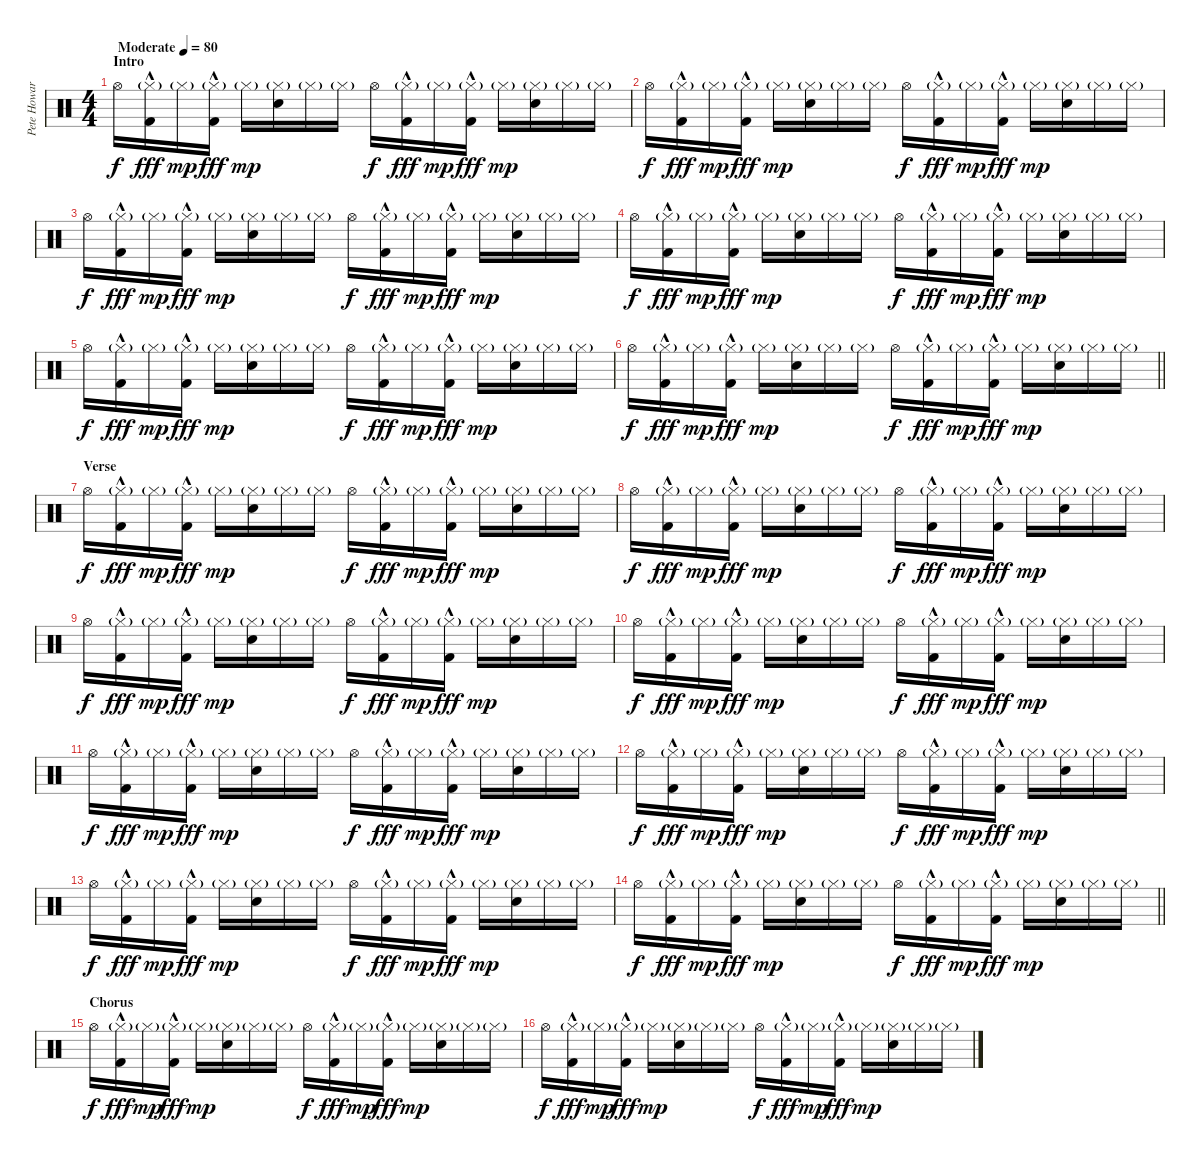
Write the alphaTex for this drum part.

\track ("Pete Howard - Drums" "Pete Howar") {instrument percussion}
\staff {score}
\articulation defaults
\ts (4 4)
\section ("" "Intro")
\tempo (80 "Moderate")
\clef neutral
\ks c "Hi-Hat (open)".16{dy f}
("Hi-Hat (closed)"{g} "Kick (hit) 2"{hac}).16{dy fff} "Hi-Hat (closed)"{g}.16{dy mp} ("Hi-Hat (closed)"{g} "Kick (hit) 2"{hac}).16{dy fff} "Hi-Hat (closed)"{g}.16{dy mp} ("Hi-Hat (closed)"{g} "Electric Snare (hit)").16 "Hi-Hat (closed)"{g}.16 "Hi-Hat (closed)"{g}.16 "Hi-Hat (open)".16{dy f} ("Hi-Hat (closed)"{g} "Kick (hit) 2"{hac}).16{dy fff} "Hi-Hat (closed)"{g}.16{dy mp} ("Hi-Hat (closed)"{g} "Kick (hit) 2"{hac}).16{dy fff} "Hi-Hat (closed)"{g}.16{dy mp} ("Hi-Hat (closed)"{g} "Electric Snare (hit)").16 "Hi-Hat (closed)"{g}.16 "Hi-Hat (closed)"{g}.16 |
"Hi-Hat (open)".16{dy f} ("Hi-Hat (closed)"{g} "Kick (hit) 2"{hac}).16{dy fff} "Hi-Hat (closed)"{g}.16{dy mp} ("Hi-Hat (closed)"{g} "Kick (hit) 2"{hac}).16{dy fff} "Hi-Hat (closed)"{g}.16{dy mp} ("Hi-Hat (closed)"{g} "Electric Snare (hit)").16 "Hi-Hat (closed)"{g}.16 "Hi-Hat (closed)"{g}.16 "Hi-Hat (open)".16{dy f} ("Hi-Hat (closed)"{g} "Kick (hit) 2"{hac}).16{dy fff} "Hi-Hat (closed)"{g}.16{dy mp} ("Hi-Hat (closed)"{g} "Kick (hit) 2"{hac}).16{dy fff} "Hi-Hat (closed)"{g}.16{dy mp} ("Hi-Hat (closed)"{g} "Electric Snare (hit)").16 "Hi-Hat (closed)"{g}.16 "Hi-Hat (closed)"{g}.16 |
"Hi-Hat (open)".16{dy f} ("Hi-Hat (closed)"{g} "Kick (hit) 2"{hac}).16{dy fff} "Hi-Hat (closed)"{g}.16{dy mp} ("Hi-Hat (closed)"{g} "Kick (hit) 2"{hac}).16{dy fff} "Hi-Hat (closed)"{g}.16{dy mp} ("Hi-Hat (closed)"{g} "Electric Snare (hit)").16 "Hi-Hat (closed)"{g}.16 "Hi-Hat (closed)"{g}.16 "Hi-Hat (open)".16{dy f} ("Hi-Hat (closed)"{g} "Kick (hit) 2"{hac}).16{dy fff} "Hi-Hat (closed)"{g}.16{dy mp} ("Hi-Hat (closed)"{g} "Kick (hit) 2"{hac}).16{dy fff} "Hi-Hat (closed)"{g}.16{dy mp} ("Hi-Hat (closed)"{g} "Electric Snare (hit)").16 "Hi-Hat (closed)"{g}.16 "Hi-Hat (closed)"{g}.16 |
"Hi-Hat (open)".16{dy f} ("Hi-Hat (closed)"{g} "Kick (hit) 2"{hac}).16{dy fff} "Hi-Hat (closed)"{g}.16{dy mp} ("Hi-Hat (closed)"{g} "Kick (hit) 2"{hac}).16{dy fff} "Hi-Hat (closed)"{g}.16{dy mp} ("Hi-Hat (closed)"{g} "Electric Snare (hit)").16 "Hi-Hat (closed)"{g}.16 "Hi-Hat (closed)"{g}.16 "Hi-Hat (open)".16{dy f} ("Hi-Hat (closed)"{g} "Kick (hit) 2"{hac}).16{dy fff} "Hi-Hat (closed)"{g}.16{dy mp} ("Hi-Hat (closed)"{g} "Kick (hit) 2"{hac}).16{dy fff} "Hi-Hat (closed)"{g}.16{dy mp} ("Hi-Hat (closed)"{g} "Electric Snare (hit)").16 "Hi-Hat (closed)"{g}.16 "Hi-Hat (closed)"{g}.16 |
"Hi-Hat (open)".16{dy f} ("Hi-Hat (closed)"{g} "Kick (hit) 2"{hac}).16{dy fff} "Hi-Hat (closed)"{g}.16{dy mp} ("Hi-Hat (closed)"{g} "Kick (hit) 2"{hac}).16{dy fff} "Hi-Hat (closed)"{g}.16{dy mp} ("Hi-Hat (closed)"{g} "Electric Snare (hit)").16 "Hi-Hat (closed)"{g}.16 "Hi-Hat (closed)"{g}.16 "Hi-Hat (open)".16{dy f} ("Hi-Hat (closed)"{g} "Kick (hit) 2"{hac}).16{dy fff} "Hi-Hat (closed)"{g}.16{dy mp} ("Hi-Hat (closed)"{g} "Kick (hit) 2"{hac}).16{dy fff} "Hi-Hat (closed)"{g}.16{dy mp} ("Hi-Hat (closed)"{g} "Electric Snare (hit)").16 "Hi-Hat (closed)"{g}.16 "Hi-Hat (closed)"{g}.16 |
\barLineRight lightlight "Hi-Hat (open)".16{dy f}
("Hi-Hat (closed)"{g} "Kick (hit) 2"{hac}).16{dy fff} "Hi-Hat (closed)"{g}.16{dy mp} ("Hi-Hat (closed)"{g} "Kick (hit) 2"{hac}).16{dy fff} "Hi-Hat (closed)"{g}.16{dy mp} ("Hi-Hat (closed)"{g} "Electric Snare (hit)").16 "Hi-Hat (closed)"{g}.16 "Hi-Hat (closed)"{g}.16 "Hi-Hat (open)".16{dy f} ("Hi-Hat (closed)"{g} "Kick (hit) 2"{hac}).16{dy fff} "Hi-Hat (closed)"{g}.16{dy mp} ("Hi-Hat (closed)"{g} "Kick (hit) 2"{hac}).16{dy fff} "Hi-Hat (closed)"{g}.16{dy mp} ("Hi-Hat (closed)"{g} "Electric Snare (hit)").16 "Hi-Hat (closed)"{g}.16 "Hi-Hat (closed)"{g}.16 |
\section ("" "Verse")
"Hi-Hat (open)".16{dy f} ("Hi-Hat (closed)"{g} "Kick (hit) 2"{hac}).16{dy fff} "Hi-Hat (closed)"{g}.16{dy mp} ("Hi-Hat (closed)"{g} "Kick (hit) 2"{hac}).16{dy fff} "Hi-Hat (closed)"{g}.16{dy mp} ("Hi-Hat (closed)"{g} "Electric Snare (hit)").16 "Hi-Hat (closed)"{g}.16 "Hi-Hat (closed)"{g}.16 "Hi-Hat (open)".16{dy f} ("Hi-Hat (closed)"{g} "Kick (hit) 2"{hac}).16{dy fff} "Hi-Hat (closed)"{g}.16{dy mp} ("Hi-Hat (closed)"{g} "Kick (hit) 2"{hac}).16{dy fff} "Hi-Hat (closed)"{g}.16{dy mp} ("Hi-Hat (closed)"{g} "Electric Snare (hit)").16 "Hi-Hat (closed)"{g}.16 "Hi-Hat (closed)"{g}.16 |
"Hi-Hat (open)".16{dy f} ("Hi-Hat (closed)"{g} "Kick (hit) 2"{hac}).16{dy fff} "Hi-Hat (closed)"{g}.16{dy mp} ("Hi-Hat (closed)"{g} "Kick (hit) 2"{hac}).16{dy fff} "Hi-Hat (closed)"{g}.16{dy mp} ("Hi-Hat (closed)"{g} "Electric Snare (hit)").16 "Hi-Hat (closed)"{g}.16 "Hi-Hat (closed)"{g}.16 "Hi-Hat (open)".16{dy f} ("Hi-Hat (closed)"{g} "Kick (hit) 2"{hac}).16{dy fff} "Hi-Hat (closed)"{g}.16{dy mp} ("Hi-Hat (closed)"{g} "Kick (hit) 2"{hac}).16{dy fff} "Hi-Hat (closed)"{g}.16{dy mp} ("Hi-Hat (closed)"{g} "Electric Snare (hit)").16 "Hi-Hat (closed)"{g}.16 "Hi-Hat (closed)"{g}.16 |
"Hi-Hat (open)".16{dy f} ("Hi-Hat (closed)"{g} "Kick (hit) 2"{hac}).16{dy fff} "Hi-Hat (closed)"{g}.16{dy mp} ("Hi-Hat (closed)"{g} "Kick (hit) 2"{hac}).16{dy fff} "Hi-Hat (closed)"{g}.16{dy mp} ("Hi-Hat (closed)"{g} "Electric Snare (hit)").16 "Hi-Hat (closed)"{g}.16 "Hi-Hat (closed)"{g}.16 "Hi-Hat (open)".16{dy f} ("Hi-Hat (closed)"{g} "Kick (hit) 2"{hac}).16{dy fff} "Hi-Hat (closed)"{g}.16{dy mp} ("Hi-Hat (closed)"{g} "Kick (hit) 2"{hac}).16{dy fff} "Hi-Hat (closed)"{g}.16{dy mp} ("Hi-Hat (closed)"{g} "Electric Snare (hit)").16 "Hi-Hat (closed)"{g}.16 "Hi-Hat (closed)"{g}.16 |
"Hi-Hat (open)".16{dy f} ("Hi-Hat (closed)"{g} "Kick (hit) 2"{hac}).16{dy fff} "Hi-Hat (closed)"{g}.16{dy mp} ("Hi-Hat (closed)"{g} "Kick (hit) 2"{hac}).16{dy fff} "Hi-Hat (closed)"{g}.16{dy mp} ("Hi-Hat (closed)"{g} "Electric Snare (hit)").16 "Hi-Hat (closed)"{g}.16 "Hi-Hat (closed)"{g}.16 "Hi-Hat (open)".16{dy f} ("Hi-Hat (closed)"{g} "Kick (hit) 2"{hac}).16{dy fff} "Hi-Hat (closed)"{g}.16{dy mp} ("Hi-Hat (closed)"{g} "Kick (hit) 2"{hac}).16{dy fff} "Hi-Hat (closed)"{g}.16{dy mp} ("Hi-Hat (closed)"{g} "Electric Snare (hit)").16 "Hi-Hat (closed)"{g}.16 "Hi-Hat (closed)"{g}.16 |
"Hi-Hat (open)".16{dy f} ("Hi-Hat (closed)"{g} "Kick (hit) 2"{hac}).16{dy fff} "Hi-Hat (closed)"{g}.16{dy mp} ("Hi-Hat (closed)"{g} "Kick (hit) 2"{hac}).16{dy fff} "Hi-Hat (closed)"{g}.16{dy mp} ("Hi-Hat (closed)"{g} "Electric Snare (hit)").16 "Hi-Hat (closed)"{g}.16 "Hi-Hat (closed)"{g}.16 "Hi-Hat (open)".16{dy f} ("Hi-Hat (closed)"{g} "Kick (hit) 2"{hac}).16{dy fff} "Hi-Hat (closed)"{g}.16{dy mp} ("Hi-Hat (closed)"{g} "Kick (hit) 2"{hac}).16{dy fff} "Hi-Hat (closed)"{g}.16{dy mp} ("Hi-Hat (closed)"{g} "Electric Snare (hit)").16 "Hi-Hat (closed)"{g}.16 "Hi-Hat (closed)"{g}.16 |
"Hi-Hat (open)".16{dy f} ("Hi-Hat (closed)"{g} "Kick (hit) 2"{hac}).16{dy fff} "Hi-Hat (closed)"{g}.16{dy mp} ("Hi-Hat (closed)"{g} "Kick (hit) 2"{hac}).16{dy fff} "Hi-Hat (closed)"{g}.16{dy mp} ("Hi-Hat (closed)"{g} "Electric Snare (hit)").16 "Hi-Hat (closed)"{g}.16 "Hi-Hat (closed)"{g}.16 "Hi-Hat (open)".16{dy f} ("Hi-Hat (closed)"{g} "Kick (hit) 2"{hac}).16{dy fff} "Hi-Hat (closed)"{g}.16{dy mp} ("Hi-Hat (closed)"{g} "Kick (hit) 2"{hac}).16{dy fff} "Hi-Hat (closed)"{g}.16{dy mp} ("Hi-Hat (closed)"{g} "Electric Snare (hit)").16 "Hi-Hat (closed)"{g}.16 "Hi-Hat (closed)"{g}.16 |
"Hi-Hat (open)".16{dy f} ("Hi-Hat (closed)"{g} "Kick (hit) 2"{hac}).16{dy fff} "Hi-Hat (closed)"{g}.16{dy mp} ("Hi-Hat (closed)"{g} "Kick (hit) 2"{hac}).16{dy fff} "Hi-Hat (closed)"{g}.16{dy mp} ("Hi-Hat (closed)"{g} "Electric Snare (hit)").16 "Hi-Hat (closed)"{g}.16 "Hi-Hat (closed)"{g}.16 "Hi-Hat (open)".16{dy f} ("Hi-Hat (closed)"{g} "Kick (hit) 2"{hac}).16{dy fff} "Hi-Hat (closed)"{g}.16{dy mp} ("Hi-Hat (closed)"{g} "Kick (hit) 2"{hac}).16{dy fff} "Hi-Hat (closed)"{g}.16{dy mp} ("Hi-Hat (closed)"{g} "Electric Snare (hit)").16 "Hi-Hat (closed)"{g}.16 "Hi-Hat (closed)"{g}.16 |
\barLineRight lightlight "Hi-Hat (open)".16{dy f}
("Hi-Hat (closed)"{g} "Kick (hit) 2"{hac}).16{dy fff} "Hi-Hat (closed)"{g}.16{dy mp} ("Hi-Hat (closed)"{g} "Kick (hit) 2"{hac}).16{dy fff} "Hi-Hat (closed)"{g}.16{dy mp} ("Hi-Hat (closed)"{g} "Electric Snare (hit)").16 "Hi-Hat (closed)"{g}.16 "Hi-Hat (closed)"{g}.16 "Hi-Hat (open)".16{dy f} ("Hi-Hat (closed)"{g} "Kick (hit) 2"{hac}).16{dy fff} "Hi-Hat (closed)"{g}.16{dy mp} ("Hi-Hat (closed)"{g} "Kick (hit) 2"{hac}).16{dy fff} "Hi-Hat (closed)"{g}.16{dy mp} ("Hi-Hat (closed)"{g} "Electric Snare (hit)").16 "Hi-Hat (closed)"{g}.16 "Hi-Hat (closed)"{g}.16 |
\section ("" "Chorus")
"Hi-Hat (open)".16{dy f} ("Hi-Hat (closed)"{g} "Kick (hit) 2"{hac}).16{dy fff} "Hi-Hat (closed)"{g}.16{dy mp} ("Hi-Hat (closed)"{g} "Kick (hit) 2"{hac}).16{dy fff} "Hi-Hat (closed)"{g}.16{dy mp} ("Hi-Hat (closed)"{g} "Electric Snare (hit)").16 "Hi-Hat (closed)"{g}.16 "Hi-Hat (closed)"{g}.16 "Hi-Hat (open)".16{dy f} ("Hi-Hat (closed)"{g} "Kick (hit) 2"{hac}).16{dy fff} "Hi-Hat (closed)"{g}.16{dy mp} ("Hi-Hat (closed)"{g} "Kick (hit) 2"{hac}).16{dy fff} "Hi-Hat (closed)"{g}.16{dy mp} ("Hi-Hat (closed)"{g} "Electric Snare (hit)").16 "Hi-Hat (closed)"{g}.16 "Hi-Hat (closed)"{g}.16 |
"Hi-Hat (open)".16{dy f} ("Hi-Hat (closed)"{g} "Kick (hit) 2"{hac}).16{dy fff} "Hi-Hat (closed)"{g}.16{dy mp} ("Hi-Hat (closed)"{g} "Kick (hit) 2"{hac}).16{dy fff} "Hi-Hat (closed)"{g}.16{dy mp} ("Hi-Hat (closed)"{g} "Electric Snare (hit)").16 "Hi-Hat (closed)"{g}.16 "Hi-Hat (closed)"{g}.16 "Hi-Hat (open)".16{dy f} ("Hi-Hat (closed)"{g} "Kick (hit) 2"{hac}).16{dy fff} "Hi-Hat (closed)"{g}.16{dy mp} ("Hi-Hat (closed)"{g} "Kick (hit) 2"{hac}).16{dy fff} "Hi-Hat (closed)"{g}.16{dy mp} ("Hi-Hat (closed)"{g} "Electric Snare (hit)").16 "Hi-Hat (closed)"{g}.16 "Hi-Hat (closed)"{g}.16
